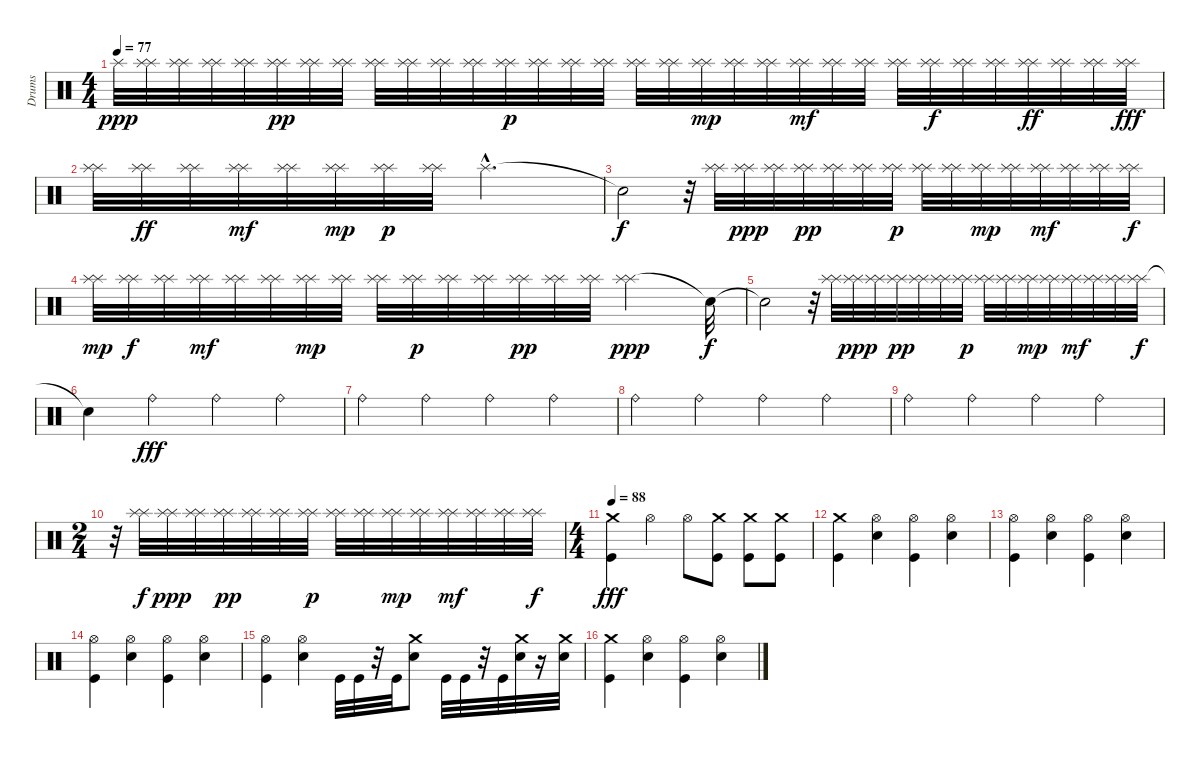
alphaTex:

\track ("Drums" "Drums") {instrument percussion}
\staff {score}
\articulation defaults
\ts (4 4)
\tempo 77
\clef neutral
\ks c "Splash (hit)".32{dy ppp}
("Splash (hit)" "Splash (hit)").32 ("Splash (hit)" "Splash (hit)").32 ("Splash (hit)" "Splash (hit)").32 ("Splash (hit)" "Splash (hit)").32 ("Splash (hit)" "Splash (hit)").32{dy pp} ("Splash (hit)" "Splash (hit)").32 ("Splash (hit)" "Splash (hit)").32 ("Splash (hit)" "Splash (hit)").32 ("Splash (hit)" "Splash (hit)").32 ("Splash (hit)" "Splash (hit)").32 ("Splash (hit)" "Splash (hit)").32 ("Splash (hit)" "Splash (hit)").32{dy p} ("Splash (hit)" "Splash (hit)").32 ("Splash (hit)" "Splash (hit)").32 ("Splash (hit)" "Splash (hit)").32 ("Splash (hit)" "Splash (hit)").32 ("Splash (hit)" "Splash (hit)").32 ("Splash (hit)" "Splash (hit)").32{dy mp} ("Splash (hit)" "Splash (hit)").32 ("Splash (hit)" "Splash (hit)").32 ("Splash (hit)" "Splash (hit)").32{dy mf} ("Splash (hit)" "Splash (hit)").32 ("Splash (hit)" "Splash (hit)").32 ("Splash (hit)" "Splash (hit)").32 ("Splash (hit)" "Splash (hit)").32{dy f} ("Splash (hit)" "Splash (hit)").32 ("Splash (hit)" "Splash (hit)").32 ("Splash (hit)" "Splash (hit)").32{dy ff} ("Splash (hit)" "Splash (hit)").32 ("Splash (hit)" "Splash (hit)").32 ("Splash (hit)" "Splash (hit)").32{dy fff} |
("Splash (hit)" "Splash (hit)").32 ("Splash (hit)" "Splash (hit)").32{dy ff} ("Splash (hit)" "Splash (hit)").32 ("Splash (hit)" "Splash (hit)").32{dy mf} ("Splash (hit)" "Splash (hit)").32 ("Splash (hit)" "Splash (hit)").32{dy mp} ("Splash (hit)" "Splash (hit)").32{dy p} ("Splash (hit)" "Splash (hit)").32 "Splash (hit)"{hac}.2{d} |
"Snare (hit)"{t}.2{dy f} r.32 ("Splash (hit)" "Splash (hit)").32 ("Splash (hit)" "Splash (hit)").32{dy ppp} ("Splash (hit)" "Splash (hit)").32 ("Splash (hit)" "Splash (hit)").32{dy pp} ("Splash (hit)" "Splash (hit)").32 ("Splash (hit)" "Splash (hit)").32 ("Splash (hit)" "Splash (hit)").32{dy p} ("Splash (hit)" "Splash (hit)").32 ("Splash (hit)" "Splash (hit)").32 ("Splash (hit)" "Splash (hit)").32{dy mp} ("Splash (hit)" "Splash (hit)").32 ("Splash (hit)" "Splash (hit)").32{dy mf} ("Splash (hit)" "Splash (hit)").32 ("Splash (hit)" "Splash (hit)").32 ("Splash (hit)" "Splash (hit)").32{dy f} |
("Splash (hit)" "Splash (hit)").32{dy mp} ("Splash (hit)" "Splash (hit)").32{dy f} ("Splash (hit)" "Splash (hit)").32 ("Splash (hit)" "Splash (hit)").32{dy mf} ("Splash (hit)" "Splash (hit)").32 ("Splash (hit)" "Splash (hit)").32 ("Splash (hit)" "Splash (hit)").32{dy mp} ("Splash (hit)" "Splash (hit)").32 ("Splash (hit)" "Splash (hit)").32 ("Splash (hit)" "Splash (hit)").32{dy p} ("Splash (hit)" "Splash (hit)").32 ("Splash (hit)" "Splash (hit)").32 ("Splash (hit)" "Splash (hit)").32{dy pp} ("Splash (hit)" "Splash (hit)").32 ("Splash (hit)" "Splash (hit)").32 ("Splash (hit)" "Splash (hit)").2{dy ppp} "Snare (hit)"{t}.32{dy f} |
"Snare (hit)"{t}.2 r.32 ("Splash (hit)" "Splash (hit)").32 ("Splash (hit)" "Splash (hit)").32{dy ppp} ("Splash (hit)" "Splash (hit)").32 ("Splash (hit)" "Splash (hit)").32{dy pp} ("Splash (hit)" "Splash (hit)").32 ("Splash (hit)" "Splash (hit)").32 ("Splash (hit)" "Splash (hit)").32{dy p} ("Splash (hit)" "Splash (hit)").32 ("Splash (hit)" "Splash (hit)").32 ("Splash (hit)" "Splash (hit)").32{dy mp} ("Splash (hit)" "Splash (hit)").32 ("Splash (hit)" "Splash (hit)").32{dy mf} ("Splash (hit)" "Splash (hit)").32 ("Splash (hit)" "Splash (hit)").32 ("Splash (hit)" "Splash (hit)").32{dy f} |
"Snare (hit)"{t}.4 "Ride (bell)".4{dy fff} "Ride (bell)".4 "Ride (bell)".4 |
"Ride (bell)".4 "Ride (bell)".4 "Ride (bell)".4 "Ride (bell)".4 |
"Ride (bell)".4 "Ride (bell)".4 "Ride (bell)".4 "Ride (bell)".4 |
"Ride (bell)".4 "Ride (bell)".4 "Ride (bell)".4 "Ride (bell)".4 |
\ts (2 4)
r.32 ("Splash (hit)" "Splash (hit)").32{dy f} ("Splash (hit)" "Splash (hit)").32{dy ppp} ("Splash (hit)" "Splash (hit)").32 ("Splash (hit)" "Splash (hit)").32{dy pp} ("Splash (hit)" "Splash (hit)").32 ("Splash (hit)" "Splash (hit)").32 ("Splash (hit)" "Splash (hit)").32{dy p} ("Splash (hit)" "Splash (hit)").32 ("Splash (hit)" "Splash (hit)").32 ("Splash (hit)" "Splash (hit)").32{dy mp} ("Splash (hit)" "Splash (hit)").32 ("Splash (hit)" "Splash (hit)").32{dy mf} ("Splash (hit)" "Splash (hit)").32 ("Splash (hit)" "Splash (hit)").32 ("Splash (hit)" "Splash (hit)").32{dy f} |
\ts (4 4)
\tempo 88
("Crash medium (hit)" "Kick (hit)").4{dy fff} "Hi-Hat (open)".4 "Hi-Hat (open)".8 ("Kick (hit)" "Crash medium (hit)").8 ("Crash medium (hit)" "Kick (hit)").8 ("Kick (hit)" "Crash medium (hit)").8 |
("Kick (hit)" "Crash medium (hit)").4 ("Electric Snare (hit)" "Hi-Hat (open)").4 ("Kick (hit)" "Hi-Hat (open)").4 ("Electric Snare (hit)" "Hi-Hat (open)").4 |
("Kick (hit)" "Hi-Hat (open)").4 ("Hi-Hat (open)" "Electric Snare (hit)").4 ("Kick (hit)" "Hi-Hat (open)").4 ("Electric Snare (hit)" "Hi-Hat (open)").4 |
("Kick (hit)" "Hi-Hat (open)").4 ("Electric Snare (hit)" "Hi-Hat (open)").4 ("Kick (hit)" "Hi-Hat (open)").4 ("Hi-Hat (open)" "Electric Snare (hit)").4 |
("Kick (hit)" "Hi-Hat (open)").4 ("Electric Snare (hit)" "Hi-Hat (open)").4 "Kick (hit)".32 "Kick (hit)".32 r.32 "Kick (hit)".32 ("Electric Snare (hit)" "Crash medium (hit)").8 "Kick (hit)".32 "Kick (hit)".32 r.32 "Kick (hit)".32 ("Crash medium (hit)" "Electric Snare (hit)").32 r.16 ("Electric Snare (hit)" "Crash medium (hit)").32 |
("Kick (hit)" "Crash medium (hit)").4 ("Hi-Hat (open)" "Electric Snare (hit)").4 ("Kick (hit)" "Hi-Hat (open)").4 ("Electric Snare (hit)" "Hi-Hat (open)").4
